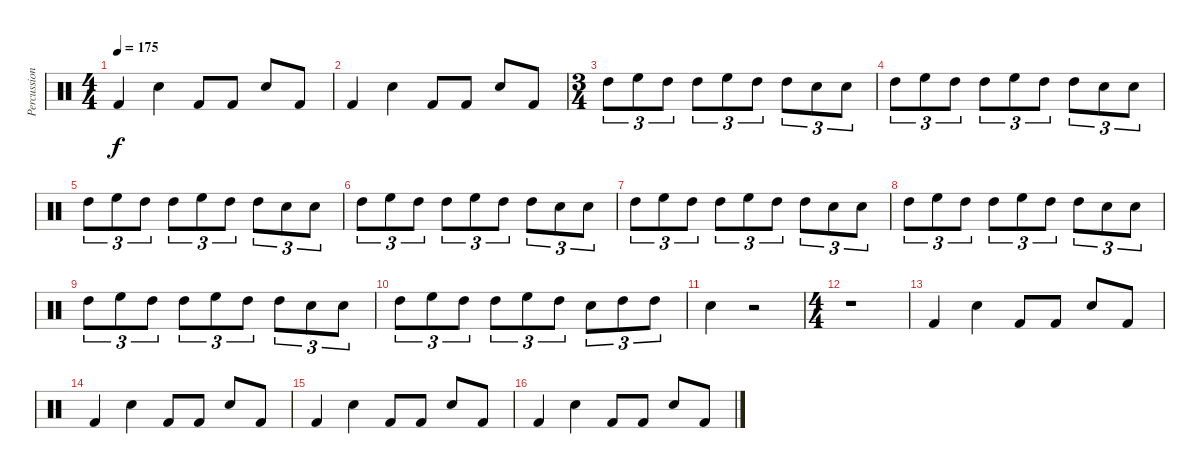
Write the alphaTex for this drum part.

\track ("Percussion" "Percussion") {instrument percussion}
\staff {score}
\articulation defaults
\ts (4 4)
\tempo 175
\clef neutral
\ks c "Kick (hit) 2".4{dy f} "Electric Snare (hit)".4 "Kick (hit) 2".8 "Kick (hit) 2".8 "Electric Snare (hit)".8 "Kick (hit) 2".8
|
"Kick (hit) 2".4 "Electric Snare (hit)".4 "Kick (hit) 2".8 "Kick (hit) 2".8 "Electric Snare (hit)".8 "Kick (hit) 2".8 |
\ts (3 4)
"High Tom (hit)".8{tu (3 2)} "High Floor Tom (hit)".8{tu (3 2)} "High Tom (hit)".8{tu (3 2)} "High Tom (hit)".8{tu (3 2)} "High Floor Tom (hit)".8{tu (3 2)} "High Tom (hit)".8{tu (3 2)} "High Tom (hit)".8{tu (3 2)} "Electric Snare (hit)".8{tu (3 2)} "Electric Snare (hit)".8{tu (3 2)} |
"High Tom (hit)".8{tu (3 2)} "High Floor Tom (hit)".8{tu (3 2)} "High Tom (hit)".8{tu (3 2)} "High Tom (hit)".8{tu (3 2)} "High Floor Tom (hit)".8{tu (3 2)} "High Tom (hit)".8{tu (3 2)} "High Tom (hit)".8{tu (3 2)} "Electric Snare (hit)".8{tu (3 2)} "Electric Snare (hit)".8{tu (3 2)} |
"High Tom (hit)".8{tu (3 2)} "High Floor Tom (hit)".8{tu (3 2)} "High Tom (hit)".8{tu (3 2)} "High Tom (hit)".8{tu (3 2)} "High Floor Tom (hit)".8{tu (3 2)} "High Tom (hit)".8{tu (3 2)} "High Tom (hit)".8{tu (3 2)} "Electric Snare (hit)".8{tu (3 2)} "Electric Snare (hit)".8{tu (3 2)} |
"High Tom (hit)".8{tu (3 2)} "High Floor Tom (hit)".8{tu (3 2)} "High Tom (hit)".8{tu (3 2)} "High Tom (hit)".8{tu (3 2)} "High Floor Tom (hit)".8{tu (3 2)} "High Tom (hit)".8{tu (3 2)} "High Tom (hit)".8{tu (3 2)} "Electric Snare (hit)".8{tu (3 2)} "Electric Snare (hit)".8{tu (3 2)} |
"High Tom (hit)".8{tu (3 2)} "High Floor Tom (hit)".8{tu (3 2)} "High Tom (hit)".8{tu (3 2)} "High Tom (hit)".8{tu (3 2)} "High Floor Tom (hit)".8{tu (3 2)} "High Tom (hit)".8{tu (3 2)} "High Tom (hit)".8{tu (3 2)} "Electric Snare (hit)".8{tu (3 2)} "Electric Snare (hit)".8{tu (3 2)} |
"High Tom (hit)".8{tu (3 2)} "High Floor Tom (hit)".8{tu (3 2)} "High Tom (hit)".8{tu (3 2)} "High Tom (hit)".8{tu (3 2)} "High Floor Tom (hit)".8{tu (3 2)} "High Tom (hit)".8{tu (3 2)} "High Tom (hit)".8{tu (3 2)} "Electric Snare (hit)".8{tu (3 2)} "Electric Snare (hit)".8{tu (3 2)} |
"High Tom (hit)".8{tu (3 2)} "High Floor Tom (hit)".8{tu (3 2)} "High Tom (hit)".8{tu (3 2)} "High Tom (hit)".8{tu (3 2)} "High Floor Tom (hit)".8{tu (3 2)} "High Tom (hit)".8{tu (3 2)} "High Tom (hit)".8{tu (3 2)} "Electric Snare (hit)".8{tu (3 2)} "Electric Snare (hit)".8{tu (3 2)} |
"High Tom (hit)".8{tu (3 2)} "High Floor Tom (hit)".8{tu (3 2)} "High Tom (hit)".8{tu (3 2)} "High Tom (hit)".8{tu (3 2)} "High Floor Tom (hit)".8{tu (3 2)} "High Tom (hit)".8{tu (3 2)} "Electric Snare (hit)".8{tu (3 2)} "High Tom (hit)".8{tu (3 2)} "High Tom (hit)".8{tu (3 2)} |
"Electric Snare (hit)".4 r.2 |
\ts (4 4)
r.1 |
"Kick (hit) 2".4 "Electric Snare (hit)".4 "Kick (hit) 2".8 "Kick (hit) 2".8 "Electric Snare (hit)".8 "Kick (hit) 2".8 |
"Kick (hit) 2".4 "Electric Snare (hit)".4 "Kick (hit) 2".8 "Kick (hit) 2".8 "Electric Snare (hit)".8 "Kick (hit) 2".8 |
"Kick (hit) 2".4 "Electric Snare (hit)".4 "Kick (hit) 2".8 "Kick (hit) 2".8 "Electric Snare (hit)".8 "Kick (hit) 2".8 |
"Kick (hit) 2".4 "Electric Snare (hit)".4 "Kick (hit) 2".8 "Kick (hit) 2".8 "Electric Snare (hit)".8 "Kick (hit) 2".8
